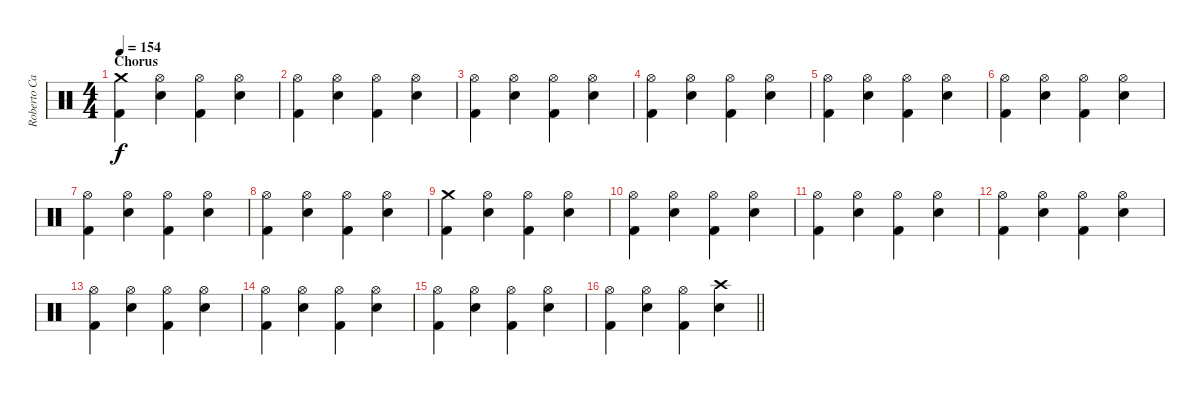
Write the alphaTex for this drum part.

\track ("Roberto Cappa - Drums" "Roberto Ca") {instrument percussion}
\staff
\articulation defaults
\ts (4 4)
\section ("" "Chorus")
\tempo 154
\clef neutral
\ks c
("Crash medium (hit)" "Kick (hit) 2").4{dy f} ("Hi-Hat (open)" "Electric Snare (hit)").4 ("Hi-Hat (open)" "Kick (hit) 2").4 ("Hi-Hat (open)" "Electric Snare (hit)").4 |
("Hi-Hat (open)" "Kick (hit) 2").4 ("Hi-Hat (open)" "Electric Snare (hit)").4 ("Hi-Hat (open)" "Kick (hit) 2").4 ("Hi-Hat (open)" "Electric Snare (hit)").4 |
("Hi-Hat (open)" "Kick (hit) 2").4 ("Hi-Hat (open)" "Electric Snare (hit)").4 ("Hi-Hat (open)" "Kick (hit) 2").4 ("Hi-Hat (open)" "Electric Snare (hit)").4 |
("Hi-Hat (open)" "Kick (hit) 2").4 ("Hi-Hat (open)" "Electric Snare (hit)").4 ("Hi-Hat (open)" "Kick (hit) 2").4 ("Hi-Hat (open)" "Electric Snare (hit)").4 |
("Hi-Hat (open)" "Kick (hit) 2").4 ("Hi-Hat (open)" "Electric Snare (hit)").4 ("Hi-Hat (open)" "Kick (hit) 2").4 ("Hi-Hat (open)" "Electric Snare (hit)").4 |
("Hi-Hat (open)" "Kick (hit) 2").4 ("Hi-Hat (open)" "Electric Snare (hit)").4 ("Hi-Hat (open)" "Kick (hit) 2").4 ("Hi-Hat (open)" "Electric Snare (hit)").4 |
("Hi-Hat (open)" "Kick (hit) 2").4 ("Hi-Hat (open)" "Electric Snare (hit)").4 ("Hi-Hat (open)" "Kick (hit) 2").4 ("Hi-Hat (open)" "Electric Snare (hit)").4 |
("Hi-Hat (open)" "Kick (hit) 2").4 ("Hi-Hat (open)" "Electric Snare (hit)").4 ("Hi-Hat (open)" "Kick (hit) 2").4 ("Hi-Hat (open)" "Electric Snare (hit)").4 |
("Crash medium (hit)" "Kick (hit) 2").4 ("Hi-Hat (open)" "Electric Snare (hit)").4 ("Hi-Hat (open)" "Kick (hit) 2").4 ("Hi-Hat (open)" "Electric Snare (hit)").4 |
("Hi-Hat (open)" "Kick (hit) 2").4 ("Hi-Hat (open)" "Electric Snare (hit)").4 ("Hi-Hat (open)" "Kick (hit) 2").4 ("Hi-Hat (open)" "Electric Snare (hit)").4 |
("Hi-Hat (open)" "Kick (hit) 2").4 ("Hi-Hat (open)" "Electric Snare (hit)").4 ("Hi-Hat (open)" "Kick (hit) 2").4 ("Hi-Hat (open)" "Electric Snare (hit)").4 |
("Hi-Hat (open)" "Kick (hit) 2").4 ("Hi-Hat (open)" "Electric Snare (hit)").4 ("Hi-Hat (open)" "Kick (hit) 2").4 ("Hi-Hat (open)" "Electric Snare (hit)").4 |
("Hi-Hat (open)" "Kick (hit) 2").4 ("Hi-Hat (open)" "Electric Snare (hit)").4 ("Hi-Hat (open)" "Kick (hit) 2").4 ("Hi-Hat (open)" "Electric Snare (hit)").4 |
("Hi-Hat (open)" "Kick (hit) 2").4 ("Hi-Hat (open)" "Electric Snare (hit)").4 ("Hi-Hat (open)" "Kick (hit) 2").4 ("Hi-Hat (open)" "Electric Snare (hit)").4 |
("Hi-Hat (open)" "Kick (hit) 2").4 ("Hi-Hat (open)" "Electric Snare (hit)").4 ("Hi-Hat (open)" "Kick (hit) 2").4 ("Hi-Hat (open)" "Electric Snare (hit)").4 |
\barLineRight lightlight
("Hi-Hat (open)" "Kick (hit) 2").4 ("Hi-Hat (open)" "Electric Snare (hit)").4 ("Hi-Hat (open)" "Kick (hit) 2").4 ("Crash high (hit)" "Electric Snare (hit)").4
